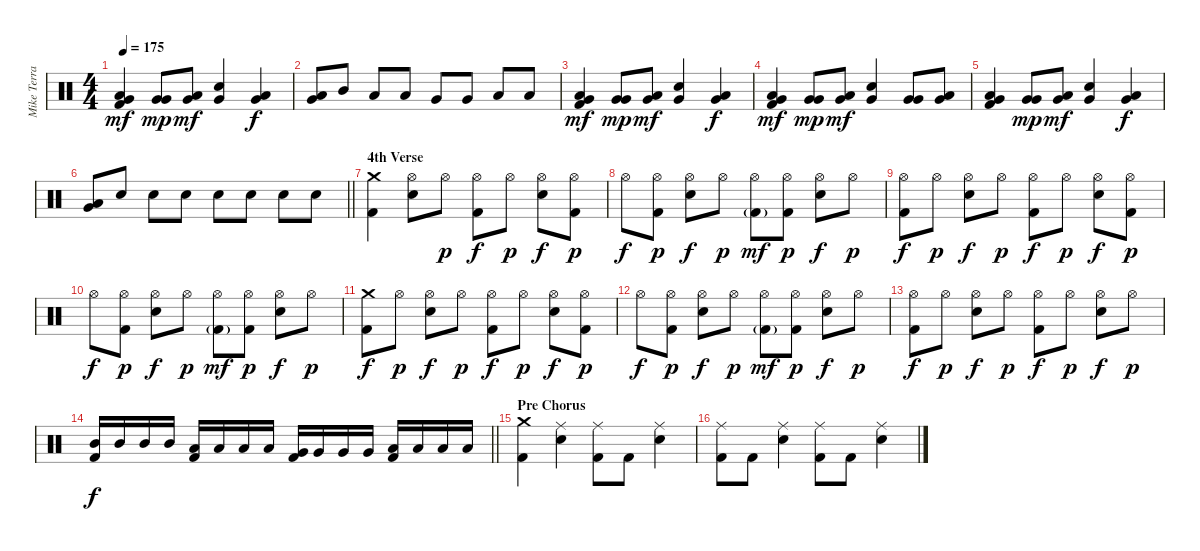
\track ("Mike Terrana" "Mike Terra") {instrument percussion}
\staff {score}
\articulation defaults
\ts (4 4)
\tempo 175
\clef neutral
\ks c
("Low Tom (hit)" "Very Low Tom (hit)" "Kick (hit) 2").4{dy mf} ("Very Low Tom (hit)" "Very Low Tom (hit)").8{dy mp} ("Low Tom (hit)" "Very Low Tom (hit)").8{dy mf} ("Snare (hit) 2" "Very Low Tom (hit)").4 ("Low Tom (hit)" "Very Low Tom (hit)").4{dy f} |
("Low Tom (hit)" "Very Low Tom (hit)").8 "Mid Tom (hit)".8 "Low Tom (hit)".8 "Low Tom (hit)".8 "Very Low Tom (hit)".8 "Very Low Tom (hit)".8 "Low Floor Tom (hit)".8 "Low Floor Tom (hit)".8 |
("Low Tom (hit)" "Very Low Tom (hit)" "Kick (hit) 2").4{dy mf} ("Very Low Tom (hit)" "Very Low Tom (hit)").8{dy mp} ("Low Tom (hit)" "Very Low Tom (hit)").8{dy mf} ("Snare (hit) 2" "Very Low Tom (hit)").4 ("Low Tom (hit)" "Very Low Tom (hit)").4{dy f} |
("Low Tom (hit)" "Very Low Tom (hit)" "Kick (hit) 2").4{dy mf} ("Very Low Tom (hit)" "Very Low Tom (hit)").8{dy mp} ("Low Tom (hit)" "Very Low Tom (hit)").8{dy mf} ("Snare (hit) 2" "Very Low Tom (hit)").4 ("Very Low Tom (hit)" "Very Low Tom (hit)").8 ("Low Tom (hit)" "Very Low Tom (hit)").8 |
("Low Tom (hit)" "Very Low Tom (hit)" "Kick (hit) 2").4 ("Very Low Tom (hit)" "Very Low Tom (hit)").8{dy mp} ("Low Tom (hit)" "Very Low Tom (hit)").8{dy mf} ("Snare (hit) 2" "Very Low Tom (hit)").4 ("Low Tom (hit)" "Very Low Tom (hit)").4{dy f} |
\barLineRight lightlight
("Low Tom (hit)" "Very Low Tom (hit)").8 "Snare (hit) 2".8 "Snare (hit) 2".8 "Snare (hit) 2".8 "Snare (hit) 2".8 "Snare (hit) 2".8 "Snare (hit) 2".8 "Snare (hit) 2".8 |
\section ("" "4th Verse")
("Crash medium (hit)" "Kick (hit) 2").4 ("Hi-Hat (open)" "Snare (hit) 2").8 "Hi-Hat (open)".8{dy p} ("Hi-Hat (open)" "Kick (hit) 2").8{dy f} "Hi-Hat (open)".8{dy p} ("Hi-Hat (open)" "Snare (hit) 2").8{dy f} ("Hi-Hat (open)" "Kick (hit) 2").8{dy p} |
"Hi-Hat (open)".8{dy f} ("Hi-Hat (open)" "Kick (hit) 2").8{dy p} ("Hi-Hat (open)" "Snare (hit) 2").8{dy f} "Hi-Hat (open)".8{dy p} ("Hi-Hat (open)" "Kick (hit) 2"{g}).8{dy mf} ("Hi-Hat (open)" "Kick (hit) 2").8{dy p} ("Hi-Hat (open)" "Snare (hit) 2").8{dy f} "Hi-Hat (open)".8{dy p} |
("Hi-Hat (open)" "Kick (hit) 2").8{dy f} "Hi-Hat (open)".8{dy p} ("Hi-Hat (open)" "Snare (hit) 2").8{dy f} "Hi-Hat (open)".8{dy p} ("Hi-Hat (open)" "Kick (hit) 2").8{dy f} "Hi-Hat (open)".8{dy p} ("Hi-Hat (open)" "Snare (hit) 2").8{dy f} ("Hi-Hat (open)" "Kick (hit) 2").8{dy p} |
"Hi-Hat (open)".8{dy f} ("Hi-Hat (open)" "Kick (hit) 2").8{dy p} ("Hi-Hat (open)" "Snare (hit) 2").8{dy f} "Hi-Hat (open)".8{dy p} ("Hi-Hat (open)" "Kick (hit) 2"{g}).8{dy mf} ("Hi-Hat (open)" "Kick (hit) 2").8{dy p} ("Hi-Hat (open)" "Snare (hit) 2").8{dy f} "Hi-Hat (open)".8{dy p} |
("Crash medium (hit)" "Kick (hit) 2").8{dy f} "Hi-Hat (open)".8{dy p} ("Hi-Hat (open)" "Snare (hit) 2").8{dy f} "Hi-Hat (open)".8{dy p} ("Hi-Hat (open)" "Kick (hit) 2").8{dy f} "Hi-Hat (open)".8{dy p} ("Hi-Hat (open)" "Snare (hit) 2").8{dy f} ("Hi-Hat (open)" "Kick (hit) 2").8{dy p} |
"Hi-Hat (open)".8{dy f} ("Hi-Hat (open)" "Kick (hit) 2").8{dy p} ("Hi-Hat (open)" "Snare (hit) 2").8{dy f} "Hi-Hat (open)".8{dy p} ("Hi-Hat (open)" "Kick (hit) 2"{g}).8{dy mf} ("Hi-Hat (open)" "Kick (hit) 2").8{dy p} ("Hi-Hat (open)" "Snare (hit) 2").8{dy f} "Hi-Hat (open)".8{dy p} |
("Hi-Hat (open)" "Kick (hit) 2").8{dy f} "Hi-Hat (open)".8{dy p} ("Hi-Hat (open)" "Snare (hit) 2").8{dy f} "Hi-Hat (open)".8{dy p} ("Hi-Hat (open)" "Kick (hit) 2").8{dy f} "Hi-Hat (open)".8{dy p} ("Hi-Hat (open)" "Snare (hit) 2").8{dy f} "Hi-Hat (open)".8{dy p} |
\barLineRight lightlight
("Mid Tom (hit)" "Kick (hit) 2").16{dy f} "Mid Tom (hit)".16 "Mid Tom (hit)".16 "Mid Tom (hit)".16 ("Low Tom (hit)" "Kick (hit) 2").16 "Low Tom (hit)".16 "Low Tom (hit)".16 "Low Tom (hit)".16 ("Very Low Tom (hit)" "Kick (hit) 2").16 "Very Low Tom (hit)".16 "Very Low Tom (hit)".16 "Very Low Tom (hit)".16 ("Low Floor Tom (hit)" "Kick (hit) 2").16 "Low Floor Tom (hit)".16 "Low Floor Tom (hit)".16 "Low Floor Tom (hit)".16 |
\section ("" "Pre Chorus")
("Crash medium (hit)" "Kick (hit) 2").4 ("Ride (middle)" "Snare (hit) 2").4 ("Ride (middle)" "Kick (hit) 2").8 "Kick (hit) 2".8 ("Ride (middle)" "Snare (hit) 2").4 |
("Ride (middle)" "Kick (hit) 2").8 "Kick (hit) 2".8 ("Ride (middle)" "Snare (hit) 2").4 ("Ride (middle)" "Kick (hit) 2").8 "Kick (hit) 2".8 ("Ride (middle)" "Snare (hit) 2").4
